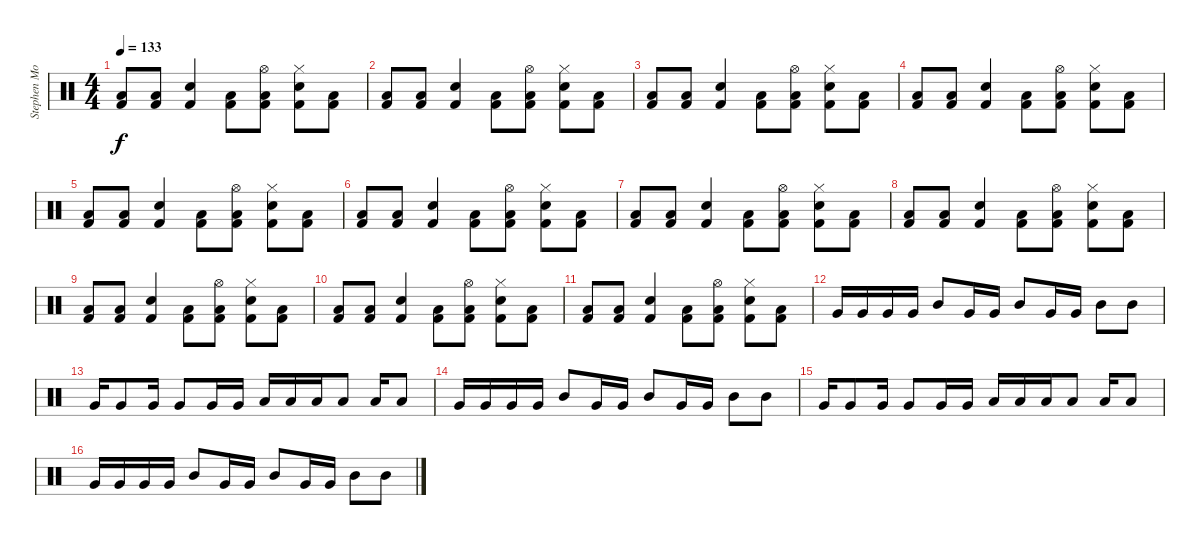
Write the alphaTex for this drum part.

\track ("Stephen Morris - Drums" "Stephen Mo") {instrument percussion}
\staff {score}
\articulation defaults
\ts (4 4)
\tempo 133
\clef neutral
\ks c
("Low Tom (hit)" "Kick (hit) 2").8{dy f} ("Low Tom (hit)" "Kick (hit) 2").8 ("Electric Snare (hit)" "Kick (hit) 2").4 ("Low Tom (hit)" "Kick (hit) 2").8 ("Low Tom (hit)" "Kick (hit) 2" "Hi-Hat (open)").8 ("Electric Snare (hit)" "Kick (hit) 2" "Hi-Hat (closed)").8 ("Low Tom (hit)" "Kick (hit) 2").8 |
("Low Tom (hit)" "Kick (hit) 2").8 ("Low Tom (hit)" "Kick (hit) 2").8 ("Electric Snare (hit)" "Kick (hit) 2").4 ("Low Tom (hit)" "Kick (hit) 2").8 ("Low Tom (hit)" "Kick (hit) 2" "Hi-Hat (open)").8 ("Electric Snare (hit)" "Kick (hit) 2" "Hi-Hat (closed)").8 ("Low Tom (hit)" "Kick (hit) 2").8 |
("Low Tom (hit)" "Kick (hit) 2").8 ("Low Tom (hit)" "Kick (hit) 2").8 ("Electric Snare (hit)" "Kick (hit) 2").4 ("Low Tom (hit)" "Kick (hit) 2").8 ("Low Tom (hit)" "Kick (hit) 2" "Hi-Hat (open)").8 ("Electric Snare (hit)" "Kick (hit) 2" "Hi-Hat (closed)").8 ("Low Tom (hit)" "Kick (hit) 2").8 |
("Low Tom (hit)" "Kick (hit) 2").8 ("Low Tom (hit)" "Kick (hit) 2").8 ("Electric Snare (hit)" "Kick (hit) 2").4 ("Low Tom (hit)" "Kick (hit) 2").8 ("Low Tom (hit)" "Kick (hit) 2" "Hi-Hat (open)").8 ("Electric Snare (hit)" "Kick (hit) 2" "Hi-Hat (closed)").8 ("Low Tom (hit)" "Kick (hit) 2").8 |
("Low Tom (hit)" "Kick (hit) 2").8 ("Low Tom (hit)" "Kick (hit) 2").8 ("Electric Snare (hit)" "Kick (hit) 2").4 ("Low Tom (hit)" "Kick (hit) 2").8 ("Low Tom (hit)" "Kick (hit) 2" "Hi-Hat (open)").8 ("Electric Snare (hit)" "Kick (hit) 2" "Hi-Hat (closed)").8 ("Low Tom (hit)" "Kick (hit) 2").8 |
("Low Tom (hit)" "Kick (hit) 2").8 ("Low Tom (hit)" "Kick (hit) 2").8 ("Electric Snare (hit)" "Kick (hit) 2").4 ("Low Tom (hit)" "Kick (hit) 2").8 ("Low Tom (hit)" "Kick (hit) 2" "Hi-Hat (open)").8 ("Electric Snare (hit)" "Kick (hit) 2" "Hi-Hat (closed)").8 ("Low Tom (hit)" "Kick (hit) 2").8 |
("Low Tom (hit)" "Kick (hit) 2").8 ("Low Tom (hit)" "Kick (hit) 2").8 ("Electric Snare (hit)" "Kick (hit) 2").4 ("Low Tom (hit)" "Kick (hit) 2").8 ("Low Tom (hit)" "Kick (hit) 2" "Hi-Hat (open)").8 ("Electric Snare (hit)" "Kick (hit) 2" "Hi-Hat (closed)").8 ("Low Tom (hit)" "Kick (hit) 2").8 |
("Low Tom (hit)" "Kick (hit) 2").8 ("Low Tom (hit)" "Kick (hit) 2").8 ("Electric Snare (hit)" "Kick (hit) 2").4 ("Low Tom (hit)" "Kick (hit) 2").8 ("Low Tom (hit)" "Kick (hit) 2" "Hi-Hat (open)").8 ("Electric Snare (hit)" "Kick (hit) 2" "Hi-Hat (closed)").8 ("Low Tom (hit)" "Kick (hit) 2").8 |
("Low Tom (hit)" "Kick (hit) 2").8 ("Low Tom (hit)" "Kick (hit) 2").8 ("Electric Snare (hit)" "Kick (hit) 2").4 ("Low Tom (hit)" "Kick (hit) 2").8 ("Low Tom (hit)" "Kick (hit) 2" "Hi-Hat (open)").8 ("Electric Snare (hit)" "Kick (hit) 2" "Hi-Hat (closed)").8 ("Low Tom (hit)" "Kick (hit) 2").8 |
("Low Tom (hit)" "Kick (hit) 2").8 ("Low Tom (hit)" "Kick (hit) 2").8 ("Electric Snare (hit)" "Kick (hit) 2").4 ("Low Tom (hit)" "Kick (hit) 2").8 ("Low Tom (hit)" "Kick (hit) 2" "Hi-Hat (open)").8 ("Electric Snare (hit)" "Kick (hit) 2" "Hi-Hat (closed)").8 ("Low Tom (hit)" "Kick (hit) 2").8 |
("Low Tom (hit)" "Kick (hit) 2").8 ("Low Tom (hit)" "Kick (hit) 2").8 ("Electric Snare (hit)" "Kick (hit) 2").4 ("Low Tom (hit)" "Kick (hit) 2").8 ("Low Tom (hit)" "Kick (hit) 2" "Hi-Hat (open)").8 ("Electric Snare (hit)" "Kick (hit) 2" "Hi-Hat (closed)").8 ("Low Tom (hit)" "Kick (hit) 2").8 |
"Very Low Tom (hit)".16 "Very Low Tom (hit)".16 "Very Low Tom (hit)".16 "Very Low Tom (hit)".16 "Mid Tom (hit)".8 "Very Low Tom (hit)".16 "Very Low Tom (hit)".16 "Mid Tom (hit)".8 "Very Low Tom (hit)".16 "Very Low Tom (hit)".16 "Mid Tom (hit)".8 "Mid Tom (hit)".8 |
"Very Low Tom (hit)".16 "Very Low Tom (hit)".8 "Very Low Tom (hit)".16 "Very Low Tom (hit)".8 "Very Low Tom (hit)".16 "Very Low Tom (hit)".16 "Low Floor Tom (hit)".16 "Low Floor Tom (hit)".16 "Low Floor Tom (hit)".16 "Low Floor Tom (hit)".8 "Low Floor Tom (hit)".16 "Low Floor Tom (hit)".8 |
"Very Low Tom (hit)".16 "Very Low Tom (hit)".16 "Very Low Tom (hit)".16 "Very Low Tom (hit)".16 "Mid Tom (hit)".8 "Very Low Tom (hit)".16 "Very Low Tom (hit)".16 "Mid Tom (hit)".8 "Very Low Tom (hit)".16 "Very Low Tom (hit)".16 "Mid Tom (hit)".8 "Mid Tom (hit)".8 |
"Very Low Tom (hit)".16 "Very Low Tom (hit)".8 "Very Low Tom (hit)".16 "Very Low Tom (hit)".8 "Very Low Tom (hit)".16 "Very Low Tom (hit)".16 "Low Floor Tom (hit)".16 "Low Floor Tom (hit)".16 "Low Floor Tom (hit)".16 "Low Floor Tom (hit)".8 "Low Floor Tom (hit)".16 "Low Floor Tom (hit)".8 |
"Very Low Tom (hit)".16 "Very Low Tom (hit)".16 "Very Low Tom (hit)".16 "Very Low Tom (hit)".16 "Mid Tom (hit)".8 "Very Low Tom (hit)".16 "Very Low Tom (hit)".16 "Mid Tom (hit)".8 "Very Low Tom (hit)".16 "Very Low Tom (hit)".16 "Mid Tom (hit)".8 "Mid Tom (hit)".8
